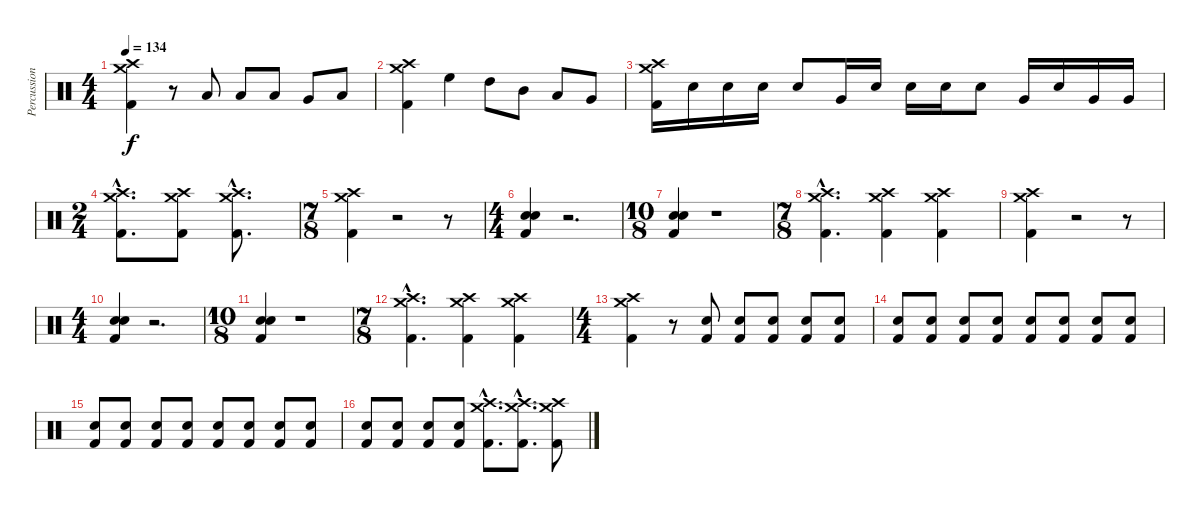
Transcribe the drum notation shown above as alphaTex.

\track ("Percussion" "Percussion") {instrument percussion}
\staff {score}
\articulation defaults
\ts (4 4)
\tempo 134
\clef neutral
\ks c
("Crash high (hit)" "Crash medium (hit)" "Kick (hit) 2").4{dy f} r.8 "Low Tom (hit)".8 "Low Tom (hit)".8 "Low Tom (hit)".8 "Very Low Tom (hit)".8 "Low Floor Tom (hit)".8 |
("Crash high (hit)" "Crash medium (hit)" "Kick (hit) 2").4 "High Floor Tom (hit)".4 "High Tom (hit)".8 "Mid Tom (hit)".8 "Low Tom (hit)".8 "Very Low Tom (hit)".8 |
("Crash high (hit)" "Crash medium (hit)" "Kick (hit) 2").16 "Snare (hit) 2".16 "Snare (hit) 2".16 "Snare (hit) 2".16 "Snare (hit) 2".8 "Very Low Tom (hit)".16 "Snare (hit) 2".16 "Snare (hit) 2".16 "Snare (hit) 2".16 "Snare (hit) 2".8 "Very Low Tom (hit)".16 "Snare (hit) 2".16 "Very Low Tom (hit)".16 "Very Low Tom (hit)".16 |
\ts (2 4)
("Crash high (hit)"{hac} "Crash medium (hit)"{hac} "Kick (hit) 2"{hac}).8{d} ("Crash high (hit)" "Crash medium (hit)" "Kick (hit) 2").8 ("Crash high (hit)"{hac} "Crash medium (hit)"{hac} "Kick (hit) 2"{hac}).8{d} |
\ts (7 8)
("Crash high (hit)" "Crash medium (hit)" "Kick (hit) 2").4 r.2 r.8 |
\ts (4 4)
("Snare (hit) 2" "Electric Snare (hit)" "Kick (hit) 2").4 r.2{d} |
\ts (10 8)
("Snare (hit) 2" "Electric Snare (hit)" "Kick (hit) 2").4 r.1 |
\ts (7 8)
("Crash high (hit)"{hac} "Crash medium (hit)"{hac} "Kick (hit) 2"{hac}).4{d} ("Crash high (hit)" "Crash medium (hit)" "Kick (hit) 2").4 ("Crash high (hit)" "Crash medium (hit)" "Kick (hit) 2").4 |
("Crash high (hit)" "Crash medium (hit)" "Kick (hit) 2").4 r.2 r.8 |
\ts (4 4)
("Snare (hit) 2" "Electric Snare (hit)" "Kick (hit) 2").4 r.2{d} |
\ts (10 8)
("Snare (hit) 2" "Electric Snare (hit)" "Kick (hit) 2").4 r.1 |
\ts (7 8)
("Crash high (hit)"{hac} "Crash medium (hit)"{hac} "Kick (hit) 2"{hac}).4{d} ("Crash high (hit)" "Crash medium (hit)" "Kick (hit) 2").4 ("Crash high (hit)" "Crash medium (hit)" "Kick (hit) 2").4 |
\ts (4 4)
("Crash high (hit)" "Crash medium (hit)" "Kick (hit) 2").4 r.8 ("Snare (hit) 2" "Kick (hit) 2").8 ("Snare (hit) 2" "Kick (hit) 2").8 ("Snare (hit) 2" "Kick (hit) 2").8 ("Snare (hit) 2" "Kick (hit) 2").8 ("Snare (hit) 2" "Kick (hit) 2").8 |
("Snare (hit) 2" "Kick (hit) 2").8 ("Snare (hit) 2" "Kick (hit) 2").8 ("Snare (hit) 2" "Kick (hit) 2").8 ("Snare (hit) 2" "Kick (hit) 2").8 ("Snare (hit) 2" "Kick (hit) 2").8 ("Snare (hit) 2" "Kick (hit) 2").8 ("Snare (hit) 2" "Kick (hit) 2").8 ("Snare (hit) 2" "Kick (hit) 2").8 |
("Snare (hit) 2" "Kick (hit) 2").8 ("Snare (hit) 2" "Kick (hit) 2").8 ("Snare (hit) 2" "Kick (hit) 2").8 ("Snare (hit) 2" "Kick (hit) 2").8 ("Snare (hit) 2" "Kick (hit) 2").8 ("Snare (hit) 2" "Kick (hit) 2").8 ("Snare (hit) 2" "Kick (hit) 2").8 ("Snare (hit) 2" "Kick (hit) 2").8 |
("Snare (hit) 2" "Kick (hit) 2").8 ("Snare (hit) 2" "Kick (hit) 2").8 ("Snare (hit) 2" "Kick (hit) 2").8 ("Snare (hit) 2" "Kick (hit) 2").8 ("Crash high (hit)"{hac} "Crash medium (hit)"{hac} "Kick (hit) 2"{hac}).8{d} ("Crash high (hit)"{hac} "Crash medium (hit)"{hac} "Kick (hit) 2"{hac}).8{d} ("Crash high (hit)" "Crash medium (hit)" "Kick (hit) 2").8
